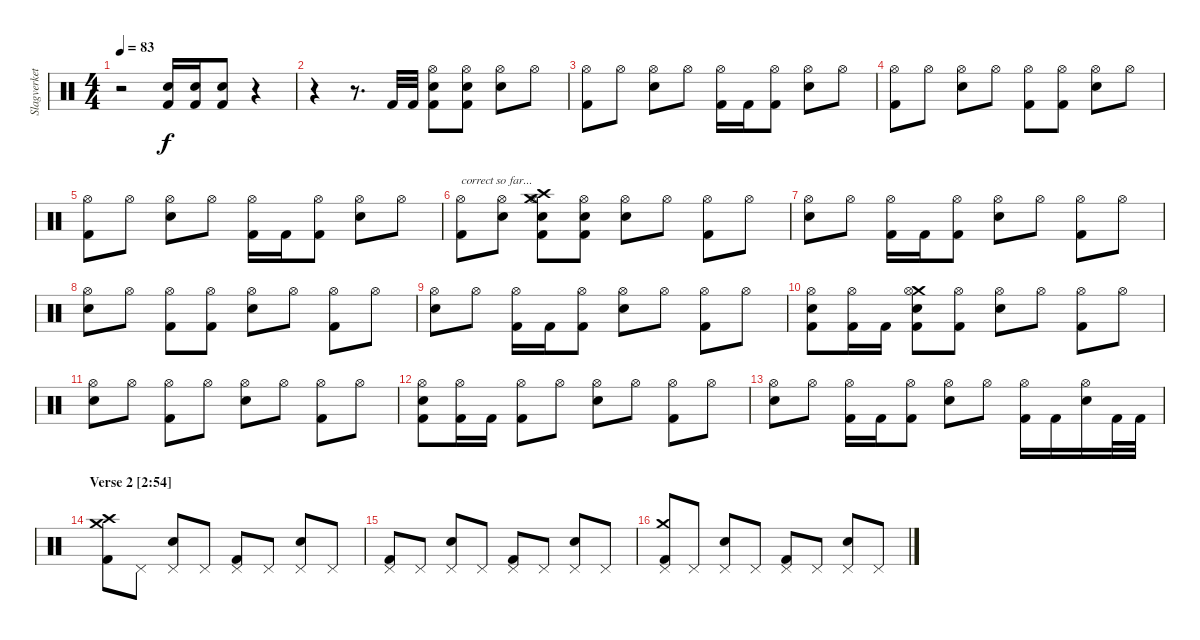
\track ("Slagverket!" "Slagverket") {instrument percussion}
\staff {score}
\articulation defaults
\ts (4 4)
\tempo 83
\clef neutral
\ks c
r.2{dy f} ("Snare (hit) 2" "Kick (hit) 2").16 ("Snare (hit) 2" "Kick (hit) 2").16 ("Snare (hit) 2" "Kick (hit) 2").8 r.4 |
r.4 r.8{d} "Kick (hit) 2".32 "Kick (hit) 2".32 ("Hi-Hat (open)" "Snare (hit) 2" "Kick (hit) 2").8 ("Hi-Hat (open)" "Snare (hit) 2" "Kick (hit) 2").8 ("Hi-Hat (open)" "Snare (hit) 2").8 "Hi-Hat (open)".8 |
("Hi-Hat (open)" "Kick (hit) 2").8 "Hi-Hat (open)".8 ("Hi-Hat (open)" "Snare (hit) 2").8 "Hi-Hat (open)".8 ("Hi-Hat (open)" "Kick (hit) 2").16 "Kick (hit) 2".16 ("Hi-Hat (open)" "Kick (hit) 2").8 ("Hi-Hat (open)" "Snare (hit) 2").8 "Hi-Hat (open)".8 |
("Hi-Hat (open)" "Kick (hit) 2").8 "Hi-Hat (open)".8 ("Hi-Hat (open)" "Snare (hit) 2").8 "Hi-Hat (open)".8 ("Hi-Hat (open)" "Kick (hit) 2").8 ("Hi-Hat (open)" "Kick (hit) 2").8 ("Hi-Hat (open)" "Snare (hit) 2").8 "Hi-Hat (open)".8 |
("Hi-Hat (open)" "Kick (hit) 2").8 "Hi-Hat (open)".8 ("Hi-Hat (open)" "Snare (hit) 2").8 "Hi-Hat (open)".8 ("Hi-Hat (open)" "Kick (hit) 2").16 "Kick (hit) 2".16 ("Hi-Hat (open)" "Kick (hit) 2").8 ("Hi-Hat (open)" "Snare (hit) 2").8 "Hi-Hat (open)".8 |
("Hi-Hat (open)" "Kick (hit) 2").8{txt "correct so far..."} ("Hi-Hat (open)" "Electric Snare (hit)").8 ("Crash medium (hit)" "Hi-Hat (open)" "Crash high (hit)" "Snare (hit) 2" "Kick (hit) 2").8 ("Hi-Hat (open)" "Snare (hit) 2" "Kick (hit) 2").8 ("Hi-Hat (open)" "Snare (hit) 2").8 "Hi-Hat (open)".8 ("Hi-Hat (open)" "Kick (hit) 2").8 "Hi-Hat (open)".8 |
("Hi-Hat (open)" "Snare (hit) 2").8 "Hi-Hat (open)".8 ("Hi-Hat (open)" "Kick (hit) 2").16 "Kick (hit) 2".16 ("Hi-Hat (open)" "Kick (hit) 2").8 ("Hi-Hat (open)" "Snare (hit) 2").8 "Hi-Hat (open)".8 ("Hi-Hat (open)" "Kick (hit) 2").8 "Hi-Hat (open)".8 |
("Hi-Hat (open)" "Snare (hit) 2").8 "Hi-Hat (open)".8 ("Hi-Hat (open)" "Kick (hit) 2").8 ("Hi-Hat (open)" "Kick (hit) 2").8 ("Hi-Hat (open)" "Snare (hit) 2").8 "Hi-Hat (open)".8 ("Hi-Hat (open)" "Kick (hit) 2").8 "Hi-Hat (open)".8 |
("Hi-Hat (open)" "Snare (hit) 2").8 "Hi-Hat (open)".8 ("Hi-Hat (open)" "Kick (hit) 2").16 "Kick (hit) 2".16 ("Hi-Hat (open)" "Kick (hit) 2").8 ("Hi-Hat (open)" "Snare (hit) 2").8 "Hi-Hat (open)".8 ("Hi-Hat (open)" "Kick (hit) 2").8 "Hi-Hat (open)".8 |
("Hi-Hat (open)" "Snare (hit) 2" "Kick (hit) 2").8 ("Hi-Hat (open)" "Kick (hit) 2").16 "Kick (hit) 2".16 ("Crash medium (hit)" "Hi-Hat (open)" "Snare (hit) 2" "Kick (hit) 2").8 ("Hi-Hat (open)" "Kick (hit) 2").8 ("Hi-Hat (open)" "Snare (hit) 2").8 "Hi-Hat (open)".8 ("Hi-Hat (open)" "Kick (hit) 2").8 "Hi-Hat (open)".8 |
("Hi-Hat (open)" "Snare (hit) 2").8 "Hi-Hat (open)".8 ("Hi-Hat (open)" "Kick (hit) 2").8 "Hi-Hat (open)".8 ("Hi-Hat (open)" "Snare (hit) 2").8 "Hi-Hat (open)".8 ("Hi-Hat (open)" "Kick (hit) 2").8 "Hi-Hat (open)".8 |
("Hi-Hat (open)" "Snare (hit) 2" "Kick (hit) 2").8 ("Hi-Hat (open)" "Kick (hit) 2").16 "Kick (hit) 2".16 ("Hi-Hat (open)" "Kick (hit) 2").8 "Hi-Hat (open)".8 ("Hi-Hat (open)" "Snare (hit) 2").8 "Hi-Hat (open)".8 ("Hi-Hat (open)" "Kick (hit) 2").8 "Hi-Hat (open)".8 |
("Hi-Hat (open)" "Snare (hit) 2").8 "Hi-Hat (open)".8 ("Hi-Hat (open)" "Kick (hit) 2").16 "Kick (hit) 2".16 ("Hi-Hat (open)" "Kick (hit) 2").8 ("Hi-Hat (open)" "Snare (hit) 2").8 "Hi-Hat (open)".8 ("Hi-Hat (open)" "Kick (hit) 2").16 "Kick (hit) 2".16 ("Hi-Hat (open)" "Snare (hit) 2").16 "Kick (hit) 2".32 "Kick (hit) 2".32 |
\section ("" "Verse 2 [2:54]")
("Crash high (hit)" "Crash medium (hit)" "Kick (hit) 2").8 "Pedal Hi-Hat (hit)".8 ("Pedal Hi-Hat (hit)" "Snare (hit) 2").8 "Pedal Hi-Hat (hit)".8 ("Pedal Hi-Hat (hit)" "Kick (hit) 2").8 "Pedal Hi-Hat (hit)".8 ("Pedal Hi-Hat (hit)" "Snare (hit) 2").8 "Pedal Hi-Hat (hit)".8 |
("Pedal Hi-Hat (hit)" "Kick (hit) 2").8 "Pedal Hi-Hat (hit)".8 ("Pedal Hi-Hat (hit)" "Snare (hit) 2").8 "Pedal Hi-Hat (hit)".8 ("Pedal Hi-Hat (hit)" "Kick (hit) 2").8 "Pedal Hi-Hat (hit)".8 ("Pedal Hi-Hat (hit)" "Snare (hit) 2").8 "Pedal Hi-Hat (hit)".8 |
("Crash medium (hit)" "Pedal Hi-Hat (hit)" "Kick (hit) 2").8 "Pedal Hi-Hat (hit)".8 ("Pedal Hi-Hat (hit)" "Snare (hit) 2").8 "Pedal Hi-Hat (hit)".8 ("Pedal Hi-Hat (hit)" "Kick (hit) 2").8 "Pedal Hi-Hat (hit)".8 ("Pedal Hi-Hat (hit)" "Snare (hit) 2").8 "Pedal Hi-Hat (hit)".8
